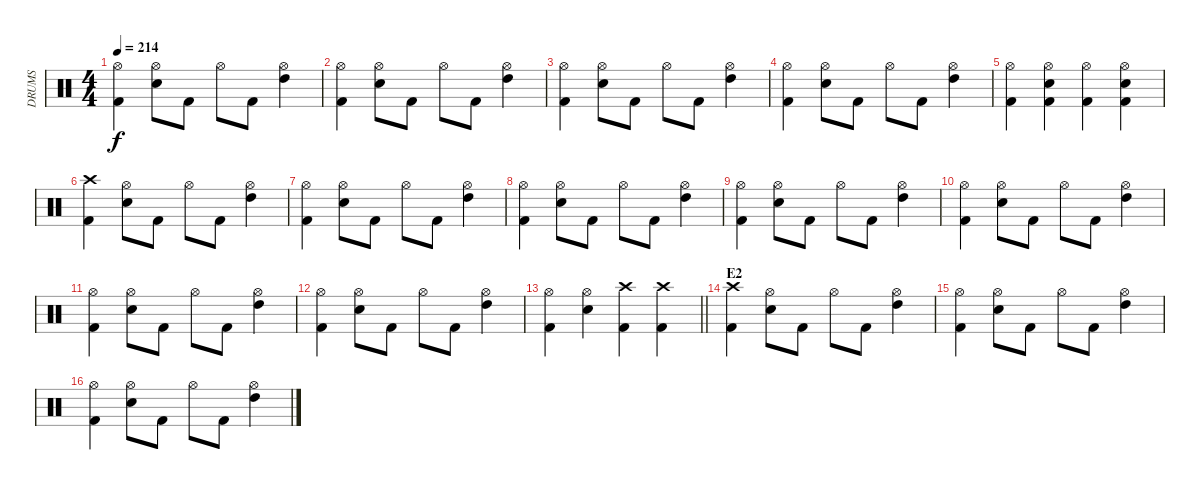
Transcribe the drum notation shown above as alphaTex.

\track ("DRUMS" "DRUMS") {instrument percussion}
\staff {score}
\articulation defaults
\ts (4 4)
\tempo 214
\clef neutral
\ks c
("Hi-Hat (open)" "Kick (hit) 2").4{dy f} ("Hi-Hat (open)" "Snare (hit) 2").8 "Kick (hit) 2".8 "Hi-Hat (open)".8 "Kick (hit) 2".8 ("Hi-Hat (open)" "High Tom (hit)").4 |
("Hi-Hat (open)" "Kick (hit) 2").4 ("Hi-Hat (open)" "Snare (hit) 2").8 "Kick (hit) 2".8 "Hi-Hat (open)".8 "Kick (hit) 2".8 ("Hi-Hat (open)" "High Tom (hit)").4 |
("Hi-Hat (open)" "Kick (hit) 2").4 ("Hi-Hat (open)" "Snare (hit) 2").8 "Kick (hit) 2".8 "Hi-Hat (open)".8 "Kick (hit) 2".8 ("Hi-Hat (open)" "High Tom (hit)").4 |
("Hi-Hat (open)" "Kick (hit) 2").4 ("Hi-Hat (open)" "Snare (hit) 2").8 "Kick (hit) 2".8 "Hi-Hat (open)".8 "Kick (hit) 2".8 ("Hi-Hat (open)" "High Tom (hit)").4 |
("Hi-Hat (open)" "Kick (hit) 2").4 ("Hi-Hat (open)" "Snare (hit) 2" "Kick (hit) 2").4 ("Hi-Hat (open)" "Kick (hit) 2").4 ("Hi-Hat (open)" "Snare (hit) 2" "Kick (hit) 2").4 |
("Crash high (hit)" "Kick (hit) 2").4 ("Hi-Hat (open)" "Snare (hit) 2").8 "Kick (hit) 2".8 "Hi-Hat (open)".8 "Kick (hit) 2".8 ("Hi-Hat (open)" "High Tom (hit)").4 |
("Hi-Hat (open)" "Kick (hit) 2").4 ("Hi-Hat (open)" "Snare (hit) 2").8 "Kick (hit) 2".8 "Hi-Hat (open)".8 "Kick (hit) 2".8 ("Hi-Hat (open)" "High Tom (hit)").4 |
("Hi-Hat (open)" "Kick (hit) 2").4 ("Hi-Hat (open)" "Snare (hit) 2").8 "Kick (hit) 2".8 "Hi-Hat (open)".8 "Kick (hit) 2".8 ("Hi-Hat (open)" "High Tom (hit)").4 |
("Hi-Hat (open)" "Kick (hit) 2").4 ("Hi-Hat (open)" "Snare (hit) 2").8 "Kick (hit) 2".8 "Hi-Hat (open)".8 "Kick (hit) 2".8 ("Hi-Hat (open)" "High Tom (hit)").4 |
("Hi-Hat (open)" "Kick (hit) 2").4 ("Hi-Hat (open)" "Snare (hit) 2").8 "Kick (hit) 2".8 "Hi-Hat (open)".8 "Kick (hit) 2".8 ("Hi-Hat (open)" "High Tom (hit)").4 |
("Hi-Hat (open)" "Kick (hit) 2").4 ("Hi-Hat (open)" "Snare (hit) 2").8 "Kick (hit) 2".8 "Hi-Hat (open)".8 "Kick (hit) 2".8 ("Hi-Hat (open)" "High Tom (hit)").4 |
("Hi-Hat (open)" "Kick (hit) 2").4 ("Hi-Hat (open)" "Snare (hit) 2").8 "Kick (hit) 2".8 "Hi-Hat (open)".8 "Kick (hit) 2".8 ("Hi-Hat (open)" "High Tom (hit)").4 |
\barLineRight lightlight
("Hi-Hat (open)" "Kick (hit) 2").4 ("Hi-Hat (open)" "Snare (hit) 2").4 ("Crash high (hit)" "Kick (hit) 2").4 ("Crash high (hit)" "Kick (hit) 2").4 |
\section ("" "E2")
("Crash high (hit)" "Kick (hit) 2").4 ("Hi-Hat (open)" "Snare (hit) 2").8 "Kick (hit) 2".8 "Hi-Hat (open)".8 "Kick (hit) 2".8 ("Hi-Hat (open)" "High Tom (hit)").4 |
("Hi-Hat (open)" "Kick (hit) 2").4 ("Hi-Hat (open)" "Snare (hit) 2").8 "Kick (hit) 2".8 "Hi-Hat (open)".8 "Kick (hit) 2".8 ("Hi-Hat (open)" "High Tom (hit)").4 |
("Hi-Hat (open)" "Kick (hit) 2").4 ("Hi-Hat (open)" "Snare (hit) 2").8 "Kick (hit) 2".8 "Hi-Hat (open)".8 "Kick (hit) 2".8 ("Hi-Hat (open)" "High Tom (hit)").4
